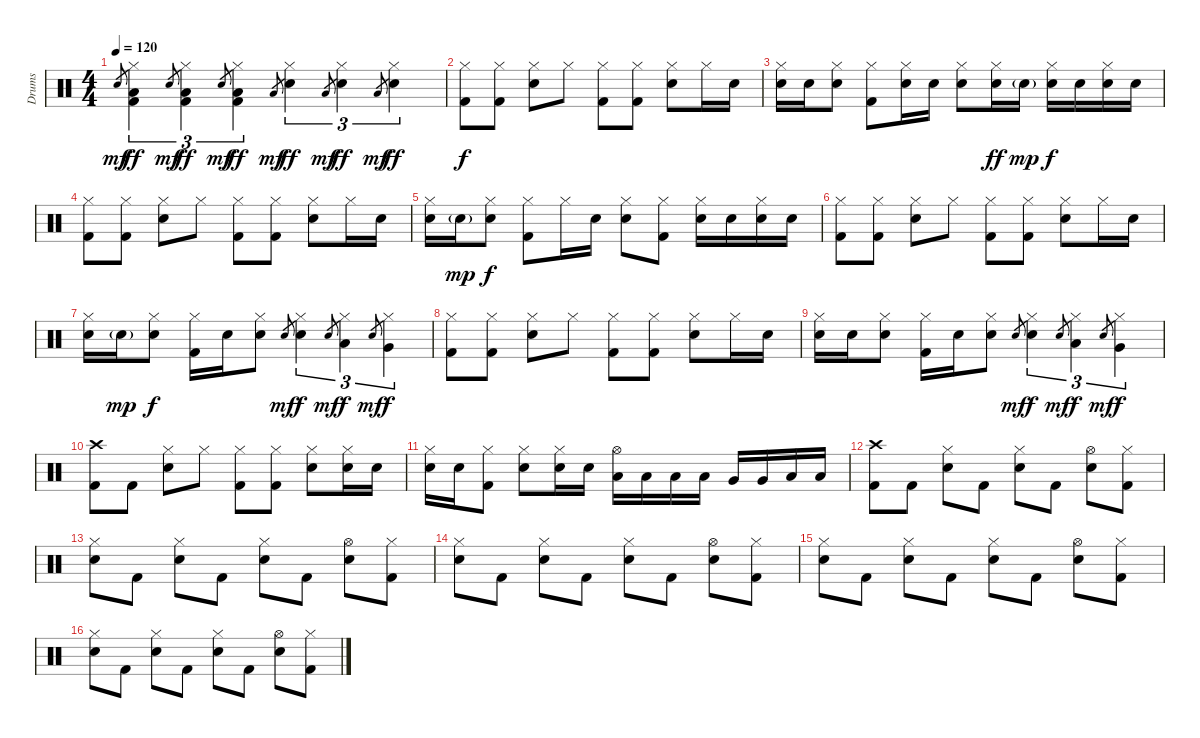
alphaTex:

\track ("Drums" "Drums") {instrument percussion}
\staff {score}
\articulation defaults
\ts (4 4)
\tempo 120
\clef neutral
\ks c "Electric Snare (hit)".8{gr dy mf}
("Hi-Hat (closed)" "Low Tom (hit)" "Kick (hit) 2").4{tu (3 2) dy ff} "Electric Snare (hit)".8{gr dy mf} ("Hi-Hat (closed)" "Low Tom (hit)" "Kick (hit) 2").4{tu (3 2) dy ff} "Electric Snare (hit)".8{gr dy mf} ("Hi-Hat (closed)" "Low Tom (hit)" "Kick (hit) 2").4{tu (3 2) dy ff} "Low Tom (hit)".8{gr dy mf} ("Hi-Hat (closed)" "Electric Snare (hit)").4{tu (3 2) dy ff} "Low Tom (hit)".8{gr dy mf} ("Hi-Hat (closed)" "Electric Snare (hit)").4{tu (3 2) dy ff} "Low Tom (hit)".8{gr dy mf} ("Hi-Hat (closed)" "Electric Snare (hit)").4{tu (3 2) dy ff} |
("Hi-Hat (closed)" "Kick (hit) 2").8{dy f} ("Hi-Hat (closed)" "Kick (hit) 2").8 ("Hi-Hat (closed)" "Electric Snare (hit)").8 "Hi-Hat (closed)".8 ("Hi-Hat (closed)" "Kick (hit) 2").8 ("Hi-Hat (closed)" "Kick (hit) 2").8 ("Hi-Hat (closed)" "Electric Snare (hit)").8 "Hi-Hat (closed)".16 "Electric Snare (hit)".16 |
("Hi-Hat (closed)" "Electric Snare (hit)").16 "Electric Snare (hit)".16 ("Hi-Hat (closed)" "Electric Snare (hit)").8 ("Hi-Hat (closed)" "Kick (hit) 2").8 ("Hi-Hat (closed)" "Electric Snare (hit)").16 "Electric Snare (hit)".16 ("Hi-Hat (closed)" "Electric Snare (hit)").8 ("Hi-Hat (closed)" "Electric Snare (hit)").16{dy ff} "Electric Snare (hit)"{g}.16{dy mp} ("Hi-Hat (closed)" "Electric Snare (hit)").16{dy f} "Electric Snare (hit)".16 ("Hi-Hat (closed)" "Electric Snare (hit)").16 "Electric Snare (hit)".16 |
("Hi-Hat (closed)" "Kick (hit) 2").8 ("Hi-Hat (closed)" "Kick (hit) 2").8 ("Hi-Hat (closed)" "Electric Snare (hit)").8 "Hi-Hat (closed)".8 ("Hi-Hat (closed)" "Kick (hit) 2").8 ("Hi-Hat (closed)" "Kick (hit) 2").8 ("Hi-Hat (closed)" "Electric Snare (hit)").8 "Hi-Hat (closed)".16 "Electric Snare (hit)".16 |
("Hi-Hat (closed)" "Electric Snare (hit)").16 "Electric Snare (hit)"{g}.16{dy mp} ("Hi-Hat (closed)" "Electric Snare (hit)").8{dy f} ("Hi-Hat (closed)" "Kick (hit) 2").8 "Hi-Hat (closed)".16 "Electric Snare (hit)".16 ("Hi-Hat (closed)" "Electric Snare (hit)").8 ("Hi-Hat (closed)" "Kick (hit) 2").8 ("Hi-Hat (closed)" "Electric Snare (hit)").16 "Electric Snare (hit)".16 ("Hi-Hat (closed)" "Electric Snare (hit)").16 "Electric Snare (hit)".16 |
("Hi-Hat (closed)" "Kick (hit) 2").8 ("Hi-Hat (closed)" "Kick (hit) 2").8 ("Hi-Hat (closed)" "Electric Snare (hit)").8 "Hi-Hat (closed)".8 ("Hi-Hat (closed)" "Kick (hit) 2").8 ("Hi-Hat (closed)" "Kick (hit) 2").8 ("Hi-Hat (closed)" "Electric Snare (hit)").8 "Hi-Hat (closed)".16 "Electric Snare (hit)".16 |
("Hi-Hat (closed)" "Electric Snare (hit)").16 "Electric Snare (hit)"{g}.16{dy mp} ("Hi-Hat (closed)" "Electric Snare (hit)").8{dy f} ("Hi-Hat (closed)" "Kick (hit) 2").16 "Electric Snare (hit)".16 ("Hi-Hat (closed)" "Electric Snare (hit)").8 "Electric Snare (hit)".8{gr dy mf} ("Hi-Hat (closed)" "Electric Snare (hit)").4{tu (3 2) dy f} "Electric Snare (hit)".8{gr dy mf} ("Hi-Hat (closed)" "Low Tom (hit)").4{tu (3 2) dy f} "Electric Snare (hit)".8{gr dy mf} ("Hi-Hat (closed)" "Very Low Tom (hit)").4{tu (3 2) dy f} |
("Hi-Hat (closed)" "Kick (hit) 2").8 ("Hi-Hat (closed)" "Kick (hit) 2").8 ("Hi-Hat (closed)" "Electric Snare (hit)").8 "Hi-Hat (closed)".8 ("Hi-Hat (closed)" "Kick (hit) 2").8 ("Hi-Hat (closed)" "Kick (hit) 2").8 ("Hi-Hat (closed)" "Electric Snare (hit)").8 "Hi-Hat (closed)".16 "Electric Snare (hit)".16 |
("Hi-Hat (closed)" "Electric Snare (hit)").16 "Electric Snare (hit)".16 ("Hi-Hat (closed)" "Electric Snare (hit)").8 ("Hi-Hat (closed)" "Kick (hit) 2").16 "Electric Snare (hit)".16 ("Hi-Hat (closed)" "Electric Snare (hit)").8 "Electric Snare (hit)".8{gr dy mf} ("Hi-Hat (closed)" "Electric Snare (hit)").4{tu (3 2) dy f} "Electric Snare (hit)".8{gr dy mf} ("Hi-Hat (closed)" "Low Tom (hit)").4{tu (3 2) dy f} "Electric Snare (hit)".8{gr dy mf} ("Hi-Hat (closed)" "Very Low Tom (hit)").4{tu (3 2) dy f} |
("Crash high (hit)" "Kick (hit) 2").8 "Kick (hit) 2".8 ("Hi-Hat (closed)" "Electric Snare (hit)").8 "Hi-Hat (closed)".8 ("Hi-Hat (closed)" "Kick (hit) 2").8 ("Hi-Hat (closed)" "Kick (hit) 2").8 ("Hi-Hat (closed)" "Electric Snare (hit)").8 ("Hi-Hat (closed)" "Electric Snare (hit)").16 "Electric Snare (hit)".16 |
("Hi-Hat (closed)" "Electric Snare (hit)").16 "Electric Snare (hit)".16 ("Hi-Hat (closed)" "Kick (hit) 2").8 ("Hi-Hat (closed)" "Electric Snare (hit)").8 ("Hi-Hat (closed)" "Electric Snare (hit)").16 "Electric Snare (hit)".16 ("Hi-Hat (open)" "Low Tom (hit)").16 "Low Tom (hit)".16 "Low Tom (hit)".16 "Low Tom (hit)".16 "Very Low Tom (hit)".16 "Very Low Tom (hit)".16 "Low Floor Tom (hit)".16 "Low Floor Tom (hit)".16 |
("Crash high (hit)" "Kick (hit) 2").8 "Kick (hit) 2".8 ("Hi-Hat (closed)" "Electric Snare (hit)").8 "Kick (hit) 2".8 ("Hi-Hat (closed)" "Electric Snare (hit)").8 "Kick (hit) 2".8 ("Hi-Hat (open)" "Electric Snare (hit)").8 ("Hi-Hat (closed)" "Kick (hit) 2").8 |
("Hi-Hat (closed)" "Electric Snare (hit)").8 "Kick (hit) 2".8 ("Hi-Hat (closed)" "Electric Snare (hit)").8 "Kick (hit) 2".8 ("Hi-Hat (closed)" "Electric Snare (hit)").8 "Kick (hit) 2".8 ("Hi-Hat (open)" "Electric Snare (hit)").8 ("Hi-Hat (closed)" "Kick (hit) 2").8 |
("Hi-Hat (closed)" "Electric Snare (hit)").8 "Kick (hit) 2".8 ("Hi-Hat (closed)" "Electric Snare (hit)").8 "Kick (hit) 2".8 ("Hi-Hat (closed)" "Electric Snare (hit)").8 "Kick (hit) 2".8 ("Hi-Hat (open)" "Electric Snare (hit)").8 ("Hi-Hat (closed)" "Kick (hit) 2").8 |
("Hi-Hat (closed)" "Electric Snare (hit)").8 "Kick (hit) 2".8 ("Hi-Hat (closed)" "Electric Snare (hit)").8 "Kick (hit) 2".8 ("Hi-Hat (closed)" "Electric Snare (hit)").8 "Kick (hit) 2".8 ("Hi-Hat (open)" "Electric Snare (hit)").8 ("Hi-Hat (closed)" "Kick (hit) 2").8 |
("Hi-Hat (closed)" "Electric Snare (hit)").8 "Kick (hit) 2".8 ("Hi-Hat (closed)" "Electric Snare (hit)").8 "Kick (hit) 2".8 ("Hi-Hat (closed)" "Electric Snare (hit)").8 "Kick (hit) 2".8 ("Hi-Hat (open)" "Electric Snare (hit)").8 ("Hi-Hat (closed)" "Kick (hit) 2").8
